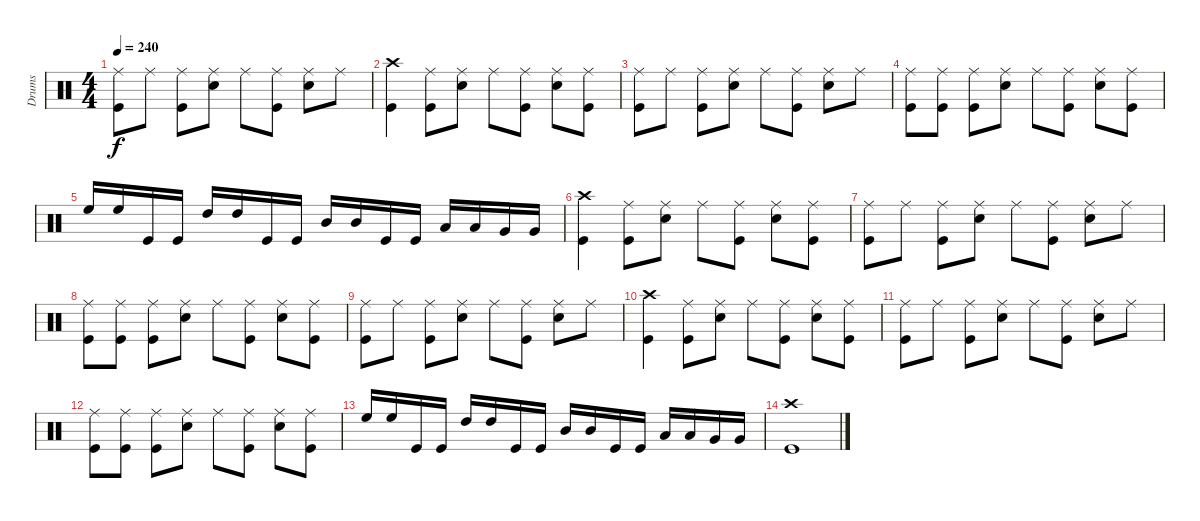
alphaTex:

\track ("Drums" "Drums") {instrument percussion}
\staff {score}
\articulation defaults
\ts (4 4)
\tempo 240
\clef neutral
\ks c
("Ride (middle)" "Kick (hit)").8{dy f} "Ride (middle)".8 ("Ride (middle)" "Kick (hit)").8 ("Ride (middle)" "Snare (hit) 2").8 "Ride (middle)".8 ("Ride (middle)" "Kick (hit)").8 ("Ride (middle)" "Snare (hit) 2").8 "Ride (middle)".8 |
("Crash high (hit)" "Kick (hit)").4 ("Ride (middle)" "Kick (hit)").8 ("Ride (middle)" "Snare (hit) 2").8 "Ride (middle)".8 ("Ride (middle)" "Kick (hit)").8 ("Ride (middle)" "Snare (hit) 2").8 ("Ride (middle)" "Kick (hit)").8 |
("Ride (middle)" "Kick (hit)").8 "Ride (middle)".8 ("Ride (middle)" "Kick (hit)").8 ("Ride (middle)" "Snare (hit) 2").8 "Ride (middle)".8 ("Ride (middle)" "Kick (hit)").8 ("Ride (middle)" "Snare (hit) 2").8 "Ride (middle)".8 |
("Ride (middle)" "Kick (hit)").8 ("Ride (middle)" "Kick (hit)").8 ("Ride (middle)" "Kick (hit)").8 ("Ride (middle)" "Snare (hit) 2").8 "Ride (middle)".8 ("Ride (middle)" "Kick (hit)").8 ("Ride (middle)" "Snare (hit) 2").8 ("Ride (middle)" "Kick (hit)").8 |
"High Floor Tom (hit)".16 "High Floor Tom (hit)".16 "Kick (hit)".16 "Kick (hit)".16 "High Tom (hit)".16 "High Tom (hit)".16 "Kick (hit)".16 "Kick (hit)".16 "Mid Tom (hit)".16 "Mid Tom (hit)".16 "Kick (hit)".16 "Kick (hit)".16 "Low Tom (hit)".16 "Low Tom (hit)".16 "Very Low Tom (hit)".16 "Very Low Tom (hit)".16 |
("Crash high (hit)" "Kick (hit)").4 ("Ride (middle)" "Kick (hit)").8 ("Ride (middle)" "Snare (hit) 2").8 "Ride (middle)".8 ("Ride (middle)" "Kick (hit)").8 ("Ride (middle)" "Snare (hit) 2").8 ("Ride (middle)" "Kick (hit)").8 |
("Ride (middle)" "Kick (hit)").8 "Ride (middle)".8 ("Ride (middle)" "Kick (hit)").8 ("Ride (middle)" "Snare (hit) 2").8 "Ride (middle)".8 ("Ride (middle)" "Kick (hit)").8 ("Ride (middle)" "Snare (hit) 2").8 "Ride (middle)".8 |
("Ride (middle)" "Kick (hit)").8 ("Ride (middle)" "Kick (hit)").8 ("Ride (middle)" "Kick (hit)").8 ("Ride (middle)" "Snare (hit) 2").8 "Ride (middle)".8 ("Ride (middle)" "Kick (hit)").8 ("Ride (middle)" "Snare (hit) 2").8 ("Ride (middle)" "Kick (hit)").8 |
("Ride (middle)" "Kick (hit)").8 "Ride (middle)".8 ("Ride (middle)" "Kick (hit)").8 ("Ride (middle)" "Snare (hit) 2").8 "Ride (middle)".8 ("Ride (middle)" "Kick (hit)").8 ("Ride (middle)" "Snare (hit) 2").8 "Ride (middle)".8 |
("Crash high (hit)" "Kick (hit)").4 ("Ride (middle)" "Kick (hit)").8 ("Ride (middle)" "Snare (hit) 2").8 "Ride (middle)".8 ("Ride (middle)" "Kick (hit)").8 ("Ride (middle)" "Snare (hit) 2").8 ("Ride (middle)" "Kick (hit)").8 |
("Ride (middle)" "Kick (hit)").8 "Ride (middle)".8 ("Ride (middle)" "Kick (hit)").8 ("Ride (middle)" "Snare (hit) 2").8 "Ride (middle)".8 ("Ride (middle)" "Kick (hit)").8 ("Ride (middle)" "Snare (hit) 2").8 "Ride (middle)".8 |
("Ride (middle)" "Kick (hit)").8 ("Ride (middle)" "Kick (hit)").8 ("Ride (middle)" "Kick (hit)").8 ("Ride (middle)" "Snare (hit) 2").8 "Ride (middle)".8 ("Ride (middle)" "Kick (hit)").8 ("Ride (middle)" "Snare (hit) 2").8 ("Ride (middle)" "Kick (hit)").8 |
"High Floor Tom (hit)".16 "High Floor Tom (hit)".16 "Kick (hit)".16 "Kick (hit)".16 "High Tom (hit)".16 "High Tom (hit)".16 "Kick (hit)".16 "Kick (hit)".16 "Mid Tom (hit)".16 "Mid Tom (hit)".16 "Kick (hit)".16 "Kick (hit)".16 "Low Tom (hit)".16 "Low Tom (hit)".16 "Very Low Tom (hit)".16 "Very Low Tom (hit)".16 |
("Crash high (hit)" "Kick (hit)").1
